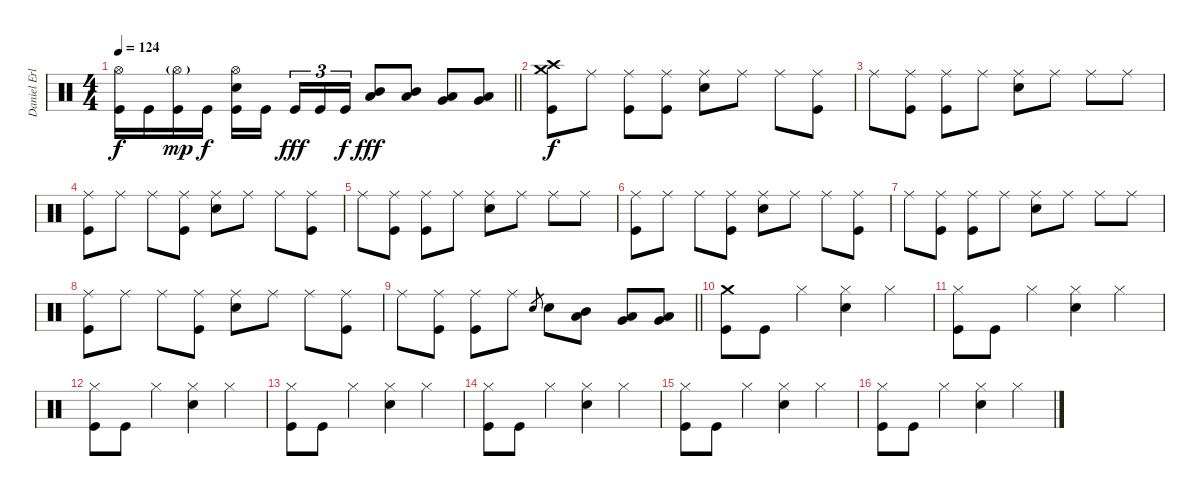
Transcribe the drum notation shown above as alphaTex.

\track ("Daniel Erlandsson" "Daniel Erl") {instrument percussion}
\staff {score}
\articulation defaults
\ts (4 4)
\tempo 124
\clef neutral
\barLineRight lightlight
\ks c
("Hi-Hat (open)" "Kick (hit)").16{dy f} "Kick (hit)".16 ("Hi-Hat (open)"{g} "Kick (hit)").16{dy mp} "Kick (hit)".16{dy f} ("Hi-Hat (open)" "Snare (hit) 2" "Kick (hit)").16 "Kick (hit)".16{beam splitsecondary} "Kick (hit)".16{tu (3 2) dy fff} "Kick (hit)".16{tu (3 2)} "Kick (hit)".16{tu (3 2) dy f} ("Mid Tom (hit)" "Low Tom (hit)").8{dy fff} ("Mid Tom (hit)" "Low Tom (hit)").8 ("Low Tom (hit)" "Very Low Tom (hit)").8 ("Low Tom (hit)" "Very Low Tom (hit)").8 |
\section ("" "")
("Crash medium (hit)" "Crash high (hit)" "Kick (hit)").8{dy f} "Ride (middle)".8 ("Ride (middle)" "Kick (hit)").8 ("Ride (middle)" "Kick (hit)").8 ("Ride (middle)" "Snare (hit) 2").8 "Ride (middle)".8 "Ride (middle)".8 ("Ride (middle)" "Kick (hit)").8 |
"Ride (middle)".8 ("Ride (middle)" "Kick (hit)").8 ("Ride (middle)" "Kick (hit)").8 "Ride (middle)".8 ("Ride (middle)" "Snare (hit) 2").8 "Ride (middle)".8 "Ride (middle)".8 "Ride (middle)".8 |
("Ride (middle)" "Kick (hit)").8 "Ride (middle)".8 "Ride (middle)".8 ("Ride (middle)" "Kick (hit)").8 ("Ride (middle)" "Snare (hit) 2").8 "Ride (middle)".8 "Ride (middle)".8 ("Ride (middle)" "Kick (hit)").8 |
"Ride (middle)".8 ("Ride (middle)" "Kick (hit)").8 ("Ride (middle)" "Kick (hit)").8 "Ride (middle)".8 ("Ride (middle)" "Snare (hit) 2").8 "Ride (middle)".8 "Ride (middle)".8 "Ride (middle)".8 |
("Ride (middle)" "Kick (hit)").8 "Ride (middle)".8 "Ride (middle)".8 ("Ride (middle)" "Kick (hit)").8 ("Ride (middle)" "Snare (hit) 2").8 "Ride (middle)".8 "Ride (middle)".8 ("Ride (middle)" "Kick (hit)").8 |
"Ride (middle)".8 ("Ride (middle)" "Kick (hit)").8 ("Ride (middle)" "Kick (hit)").8 "Ride (middle)".8 ("Ride (middle)" "Snare (hit) 2").8 "Ride (middle)".8 "Ride (middle)".8 "Ride (middle)".8 |
("Ride (middle)" "Kick (hit)").8 "Ride (middle)".8 "Ride (middle)".8 ("Ride (middle)" "Kick (hit)").8 ("Ride (middle)" "Snare (hit) 2").8 "Ride (middle)".8 "Ride (middle)".8 ("Ride (middle)" "Kick (hit)").8 |
\barLineRight lightlight "Ride (middle)".8
("Ride (middle)" "Kick (hit)").8 ("Ride (middle)" "Kick (hit)").8 "Ride (middle)".8 "Snare (hit) 2".8{gr} "Snare (hit) 2".8 ("Mid Tom (hit)" "Low Tom (hit)").8 ("Low Tom (hit)" "Very Low Tom (hit)").8 ("Very Low Tom (hit)" "Low Floor Tom (hit)").8 |
\section ("" "")
("Crash medium (hit)" "Kick (hit)").8 "Kick (hit)".8 "Hi-Hat (closed)".4 ("Hi-Hat (closed)" "Snare (hit) 2").4 "Hi-Hat (closed)".4 |
("Hi-Hat (closed)" "Kick (hit)").8 "Kick (hit)".8 "Hi-Hat (closed)".4 ("Hi-Hat (closed)" "Snare (hit) 2").4 "Hi-Hat (closed)".4 |
("Hi-Hat (closed)" "Kick (hit)").8 "Kick (hit)".8 "Hi-Hat (closed)".4 ("Hi-Hat (closed)" "Snare (hit) 2").4 "Hi-Hat (closed)".4 |
("Hi-Hat (closed)" "Kick (hit)").8 "Kick (hit)".8 "Hi-Hat (closed)".4 ("Hi-Hat (closed)" "Snare (hit) 2").4 "Hi-Hat (closed)".4 |
("Hi-Hat (closed)" "Kick (hit)").8 "Kick (hit)".8 "Hi-Hat (closed)".4 ("Hi-Hat (closed)" "Snare (hit) 2").4 "Hi-Hat (closed)".4 |
("Hi-Hat (closed)" "Kick (hit)").8 "Kick (hit)".8 "Hi-Hat (closed)".4 ("Hi-Hat (closed)" "Snare (hit) 2").4 "Hi-Hat (closed)".4 |
("Hi-Hat (closed)" "Kick (hit)").8 "Kick (hit)".8 "Hi-Hat (closed)".4 ("Hi-Hat (closed)" "Snare (hit) 2").4 "Hi-Hat (closed)".4
